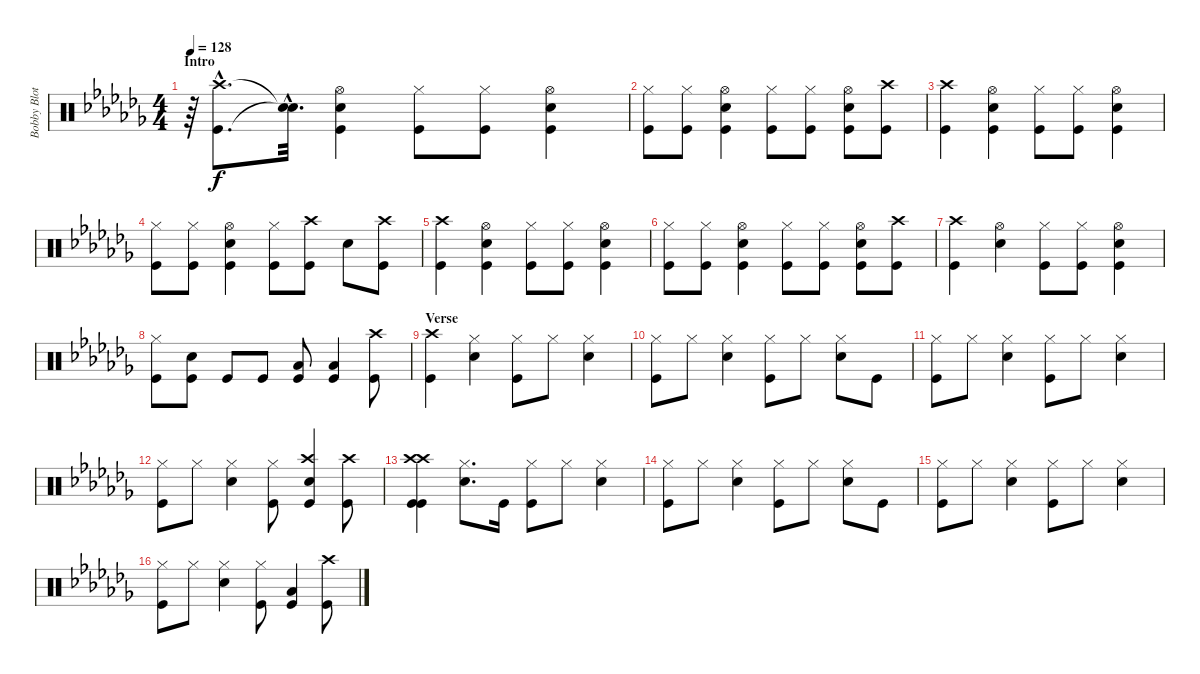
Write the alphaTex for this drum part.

\track ("Bobby Blotzer" "Bobby Blot") {instrument percussion}
\staff {score}
\articulation defaults
\ts (4 4)
\section ("" "Intro")
\tempo 128
\clef neutral
\ks cb
r.64{dy f} ("Kick (hit)"{hac} "Crash high (hit)"{hac}).8{d} ("Snare (hit)"{hac t} "Snare (hit)"{hac t}).32{d} ("Kick (hit)" "Snare (hit) 2" "Hi-Hat (open)").4 ("Kick (hit)" "Hi-Hat (closed)").8 ("Hi-Hat (closed)" "Kick (hit)").8 ("Hi-Hat (open)" "Kick (hit)" "Snare (hit) 2").4 |
("Hi-Hat (closed)" "Kick (hit)").8 ("Hi-Hat (closed)" "Kick (hit)").8 ("Snare (hit) 2" "Kick (hit)" "Hi-Hat (open)").4 ("Hi-Hat (closed)" "Kick (hit)").8 ("Kick (hit)" "Hi-Hat (closed)").8 ("Kick (hit)" "Snare (hit) 2" "Hi-Hat (open)").8 ("Crash high (hit)" "Kick (hit)").8 |
("Kick (hit)" "Crash high (hit)").4 ("Hi-Hat (open)" "Snare (hit) 2" "Kick (hit)").4 ("Hi-Hat (closed)" "Kick (hit)").8 ("Kick (hit)" "Hi-Hat (closed)").8 ("Hi-Hat (open)" "Snare (hit) 2" "Kick (hit)").4 |
("Kick (hit)" "Hi-Hat (closed)").8 ("Kick (hit)" "Hi-Hat (closed)").8 ("Kick (hit)" "Hi-Hat (open)" "Snare (hit) 2").4 ("Hi-Hat (closed)" "Kick (hit)").8 ("Crash high (hit)" "Kick (hit)").8 "Snare (hit) 2".8 ("Kick (hit)" "Crash high (hit)").8 |
("Crash high (hit)" "Kick (hit)").4 ("Kick (hit)" "Snare (hit) 2" "Hi-Hat (open)").4 ("Hi-Hat (closed)" "Kick (hit)").8 ("Hi-Hat (closed)" "Kick (hit)").8 ("Hi-Hat (open)" "Kick (hit)" "Snare (hit) 2").4 |
("Hi-Hat (closed)" "Kick (hit)").8 ("Hi-Hat (closed)" "Kick (hit)").8 ("Hi-Hat (open)" "Kick (hit)" "Snare (hit) 2").4 ("Hi-Hat (closed)" "Kick (hit)").8 ("Hi-Hat (closed)" "Kick (hit)").8 ("Kick (hit)" "Hi-Hat (open)" "Snare (hit) 2").8 ("Crash high (hit)" "Kick (hit)").8 |
("Crash high (hit)" "Kick (hit)").4 ("Hi-Hat (open)" "Snare (hit) 2").4 ("Hi-Hat (closed)" "Kick (hit)").8 ("Hi-Hat (closed)" "Kick (hit)").8 ("Hi-Hat (open)" "Kick (hit)" "Snare (hit) 2").4 |
("Hi-Hat (closed)" "Kick (hit)").8 ("Snare (hit) 2" "Kick (hit)").8 "Kick (hit)".8 "Kick (hit)".8 ("Kick (hit)" "Low Tom (hit)").8 ("Kick (hit)" "Low Tom (hit)").4 ("Kick (hit)" "Crash high (hit)").8 |
\section ("" "Verse")
("Crash high (hit)" "Kick (hit)").4 ("Snare (hit) 2" "Hi-Hat (closed)").4 ("Hi-Hat (closed)" "Kick (hit)").8 "Hi-Hat (closed)".8 ("Hi-Hat (closed)" "Snare (hit) 2").4 |
("Kick (hit)" "Hi-Hat (closed)").8 "Hi-Hat (closed)".8 ("Hi-Hat (closed)" "Snare (hit) 2").4 ("Kick (hit)" "Hi-Hat (closed)").8 "Hi-Hat (closed)".8 ("Hi-Hat (closed)" "Snare (hit) 2").8 "Kick (hit)".8 |
("Hi-Hat (closed)" "Kick (hit)").8 "Hi-Hat (closed)".8 ("Hi-Hat (closed)" "Snare (hit) 2").4 ("Kick (hit)" "Hi-Hat (closed)").8 "Hi-Hat (closed)".8 ("Hi-Hat (closed)" "Snare (hit) 2").4 |
("Hi-Hat (closed)" "Kick (hit)").8 "Hi-Hat (closed)".8 ("Snare (hit) 2" "Hi-Hat (closed)").4 ("Hi-Hat (closed)" "Kick (hit)").8 ("Snare (hit) 2" "Crash high (hit)" "Kick (hit)").4 ("Kick (hit)" "Crash high (hit)").8 |
("Crash high (hit)" "Kick (hit)" "Crash high (hit)" "Kick (hit)").4 ("Snare (hit) 2" "Hi-Hat (closed)").8{d} "Kick (hit)".16 ("Hi-Hat (closed)" "Kick (hit)").8 "Hi-Hat (closed)".8 ("Hi-Hat (closed)" "Snare (hit) 2").4 |
("Kick (hit)" "Hi-Hat (closed)").8 "Hi-Hat (closed)".8 ("Hi-Hat (closed)" "Snare (hit) 2").4 ("Kick (hit)" "Hi-Hat (closed)").8 "Hi-Hat (closed)".8 ("Hi-Hat (closed)" "Snare (hit) 2").8 "Kick (hit)".8 |
("Hi-Hat (closed)" "Kick (hit)").8 "Hi-Hat (closed)".8 ("Hi-Hat (closed)" "Snare (hit) 2").4 ("Kick (hit)" "Hi-Hat (closed)").8 "Hi-Hat (closed)".8 ("Hi-Hat (closed)" "Snare (hit) 2").4 |
("Hi-Hat (closed)" "Kick (hit)").8 "Hi-Hat (closed)".8 ("Snare (hit) 2" "Hi-Hat (closed)").4 ("Hi-Hat (closed)" "Kick (hit)").8 ("Kick (hit)" "Low Tom (hit)").4 ("Crash high (hit)" "Kick (hit)").8
